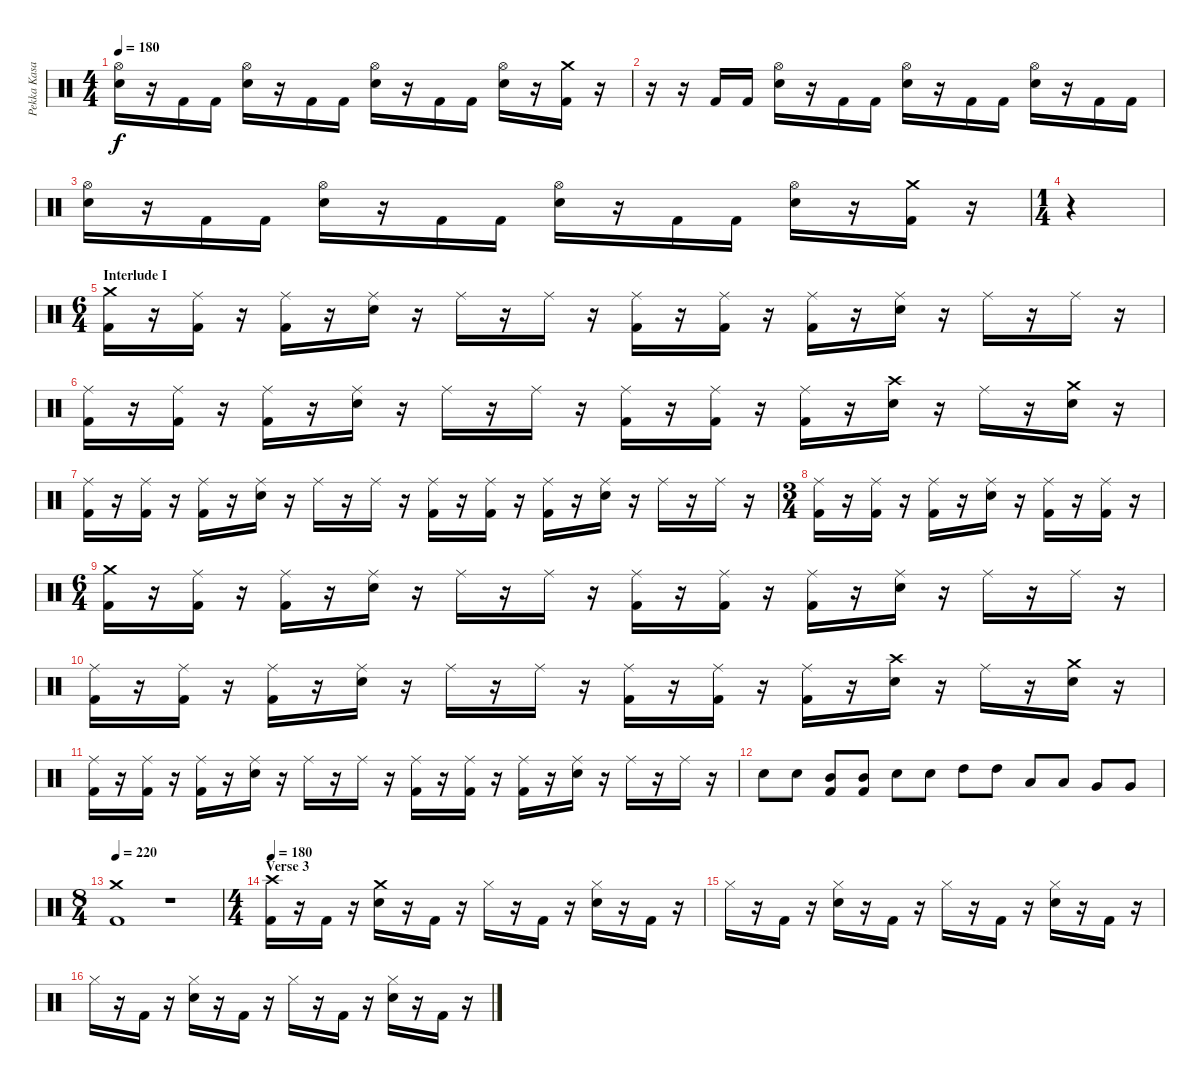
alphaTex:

\track ("Pekka Kasari" "Pekka Kasa") {instrument percussion}
\staff {score}
\articulation defaults
\ts (4 4)
\tempo 180
\clef neutral
\ks c
("Hi-Hat (open)" "Electric Snare (hit)").16{dy f} r.16 "Kick (hit) 2".16 "Kick (hit) 2".16 ("Hi-Hat (open)" "Electric Snare (hit)").16 r.16 "Kick (hit) 2".16 "Kick (hit) 2".16 ("Hi-Hat (open)" "Electric Snare (hit)").16 r.16 "Kick (hit) 2".16 "Kick (hit) 2".16 ("Hi-Hat (open)" "Electric Snare (hit)").16 r.16 ("Crash medium (hit)" "Kick (hit) 2").16 r.16 |
r.16 r.16 "Kick (hit) 2".16 "Kick (hit) 2".16 ("Hi-Hat (open)" "Electric Snare (hit)").16 r.16 "Kick (hit) 2".16 "Kick (hit) 2".16 ("Hi-Hat (open)" "Electric Snare (hit)").16 r.16 "Kick (hit) 2".16 "Kick (hit) 2".16 ("Hi-Hat (open)" "Electric Snare (hit)").16 r.16 "Kick (hit) 2".16 "Kick (hit) 2".16 |
("Hi-Hat (open)" "Electric Snare (hit)").16 r.16 "Kick (hit) 2".16 "Kick (hit) 2".16 ("Hi-Hat (open)" "Electric Snare (hit)").16 r.16 "Kick (hit) 2".16 "Kick (hit) 2".16 ("Hi-Hat (open)" "Electric Snare (hit)").16 r.16 "Kick (hit) 2".16 "Kick (hit) 2".16 ("Hi-Hat (open)" "Electric Snare (hit)").16 r.16 ("Crash medium (hit)" "Kick (hit) 2").16 r.16 |
\ts (1 4)
r.4 |
\ts (6 4)
\section ("" "Interlude I")
("Crash medium (hit)" "Kick (hit) 2").16 r.16 ("Ride (middle)" "Kick (hit) 2").16 r.16 ("Ride (middle)" "Kick (hit) 2").16 r.16 ("Ride (middle)" "Electric Snare (hit)").16 r.16 "Ride (middle)".16 r.16 "Ride (middle)".16 r.16 ("Ride (middle)" "Kick (hit) 2").16 r.16 ("Ride (middle)" "Kick (hit) 2").16 r.16 ("Ride (middle)" "Kick (hit) 2").16 r.16 ("Ride (middle)" "Electric Snare (hit)").16 r.16 "Ride (middle)".16 r.16 "Ride (middle)".16 r.16 |
("Ride (middle)" "Kick (hit) 2").16 r.16 ("Ride (middle)" "Kick (hit) 2").16 r.16 ("Ride (middle)" "Kick (hit) 2").16 r.16 ("Ride (middle)" "Electric Snare (hit)").16 r.16 "Ride (middle)".16 r.16 "Ride (middle)".16 r.16 ("Ride (middle)" "Kick (hit) 2").16 r.16 ("Ride (middle)" "Kick (hit) 2").16 r.16 ("Ride (middle)" "Kick (hit) 2").16 r.16 ("Crash high (hit)" "Electric Snare (hit)").16 r.16 "Ride (middle)".16 r.16 ("Crash medium (hit)" "Electric Snare (hit)").16 r.16 |
("Ride (middle)" "Kick (hit) 2").16 r.16 ("Ride (middle)" "Kick (hit) 2").16 r.16 ("Ride (middle)" "Kick (hit) 2").16 r.16 ("Ride (middle)" "Electric Snare (hit)").16 r.16 "Ride (middle)".16 r.16 "Ride (middle)".16 r.16 ("Ride (middle)" "Kick (hit) 2").16 r.16 ("Ride (middle)" "Kick (hit) 2").16 r.16 ("Ride (middle)" "Kick (hit) 2").16 r.16 ("Ride (middle)" "Electric Snare (hit)").16 r.16 "Ride (middle)".16 r.16 "Ride (middle)".16 r.16 |
\ts (3 4)
("Ride (middle)" "Kick (hit) 2").16 r.16 ("Ride (middle)" "Kick (hit) 2").16 r.16 ("Ride (middle)" "Kick (hit) 2").16 r.16 ("Ride (middle)" "Electric Snare (hit)").16 r.16 ("Ride (middle)" "Kick (hit) 2").16 r.16 ("Ride (middle)" "Kick (hit) 2").16 r.16 |
\ts (6 4)
("Crash medium (hit)" "Kick (hit) 2").16 r.16 ("Ride (middle)" "Kick (hit) 2").16 r.16 ("Ride (middle)" "Kick (hit) 2").16 r.16 ("Ride (middle)" "Electric Snare (hit)").16 r.16 "Ride (middle)".16 r.16 "Ride (middle)".16 r.16 ("Ride (middle)" "Kick (hit) 2").16 r.16 ("Ride (middle)" "Kick (hit) 2").16 r.16 ("Ride (middle)" "Kick (hit) 2").16 r.16 ("Ride (middle)" "Electric Snare (hit)").16 r.16 "Ride (middle)".16 r.16 "Ride (middle)".16 r.16 |
("Ride (middle)" "Kick (hit) 2").16 r.16 ("Ride (middle)" "Kick (hit) 2").16 r.16 ("Ride (middle)" "Kick (hit) 2").16 r.16 ("Ride (middle)" "Electric Snare (hit)").16 r.16 "Ride (middle)".16 r.16 "Ride (middle)".16 r.16 ("Ride (middle)" "Kick (hit) 2").16 r.16 ("Ride (middle)" "Kick (hit) 2").16 r.16 ("Ride (middle)" "Kick (hit) 2").16 r.16 ("Crash high (hit)" "Electric Snare (hit)").16 r.16 "Ride (middle)".16 r.16 ("Crash medium (hit)" "Electric Snare (hit)").16 r.16 |
("Ride (middle)" "Kick (hit) 2").16 r.16 ("Ride (middle)" "Kick (hit) 2").16 r.16 ("Ride (middle)" "Kick (hit) 2").16 r.16 ("Ride (middle)" "Electric Snare (hit)").16 r.16 "Ride (middle)".16 r.16 "Ride (middle)".16 r.16 ("Ride (middle)" "Kick (hit) 2").16 r.16 ("Ride (middle)" "Kick (hit) 2").16 r.16 ("Ride (middle)" "Kick (hit) 2").16 r.16 ("Ride (middle)" "Electric Snare (hit)").16 r.16 "Ride (middle)".16 r.16 "Ride (middle)".16 r.16 |
"Electric Snare (hit)".8 "Electric Snare (hit)".8 ("Mid Tom (hit)" "Kick (hit) 2").8 ("Mid Tom (hit)" "Kick (hit) 2").8 "Electric Snare (hit)".8 "Electric Snare (hit)".8 "High Tom (hit)".8 "High Tom (hit)".8 "Low Tom (hit)".8 "Low Tom (hit)".8 "Very Low Tom (hit)".8 "Very Low Tom (hit)".8 |
\ts (8 4)
\tempo 220
("Crash medium (hit)" "Kick (hit) 2").1 r.1 |
\ts (4 4)
\section ("" "Verse 3")
\tempo 180
("Crash high (hit)" "Kick (hit) 2").16 r.16 "Kick (hit) 2".16 r.16 ("Crash medium (hit)" "Electric Snare (hit)").16 r.16 "Kick (hit) 2".16 r.16 "Hi-Hat (closed)".16 r.16 "Kick (hit) 2".16 r.16 ("Hi-Hat (closed)" "Electric Snare (hit)").16 r.16 "Kick (hit) 2".16 r.16 |
"Hi-Hat (closed)".16 r.16 "Kick (hit) 2".16 r.16 ("Hi-Hat (closed)" "Electric Snare (hit)").16 r.16 "Kick (hit) 2".16 r.16 "Hi-Hat (closed)".16 r.16 "Kick (hit) 2".16 r.16 ("Hi-Hat (closed)" "Electric Snare (hit)").16 r.16 "Kick (hit) 2".16 r.16 |
"Hi-Hat (closed)".16 r.16 "Kick (hit) 2".16 r.16 ("Hi-Hat (closed)" "Electric Snare (hit)").16 r.16 "Kick (hit) 2".16 r.16 "Hi-Hat (closed)".16 r.16 "Kick (hit) 2".16 r.16 ("Hi-Hat (closed)" "Electric Snare (hit)").16 r.16 "Kick (hit) 2".16 r.16
